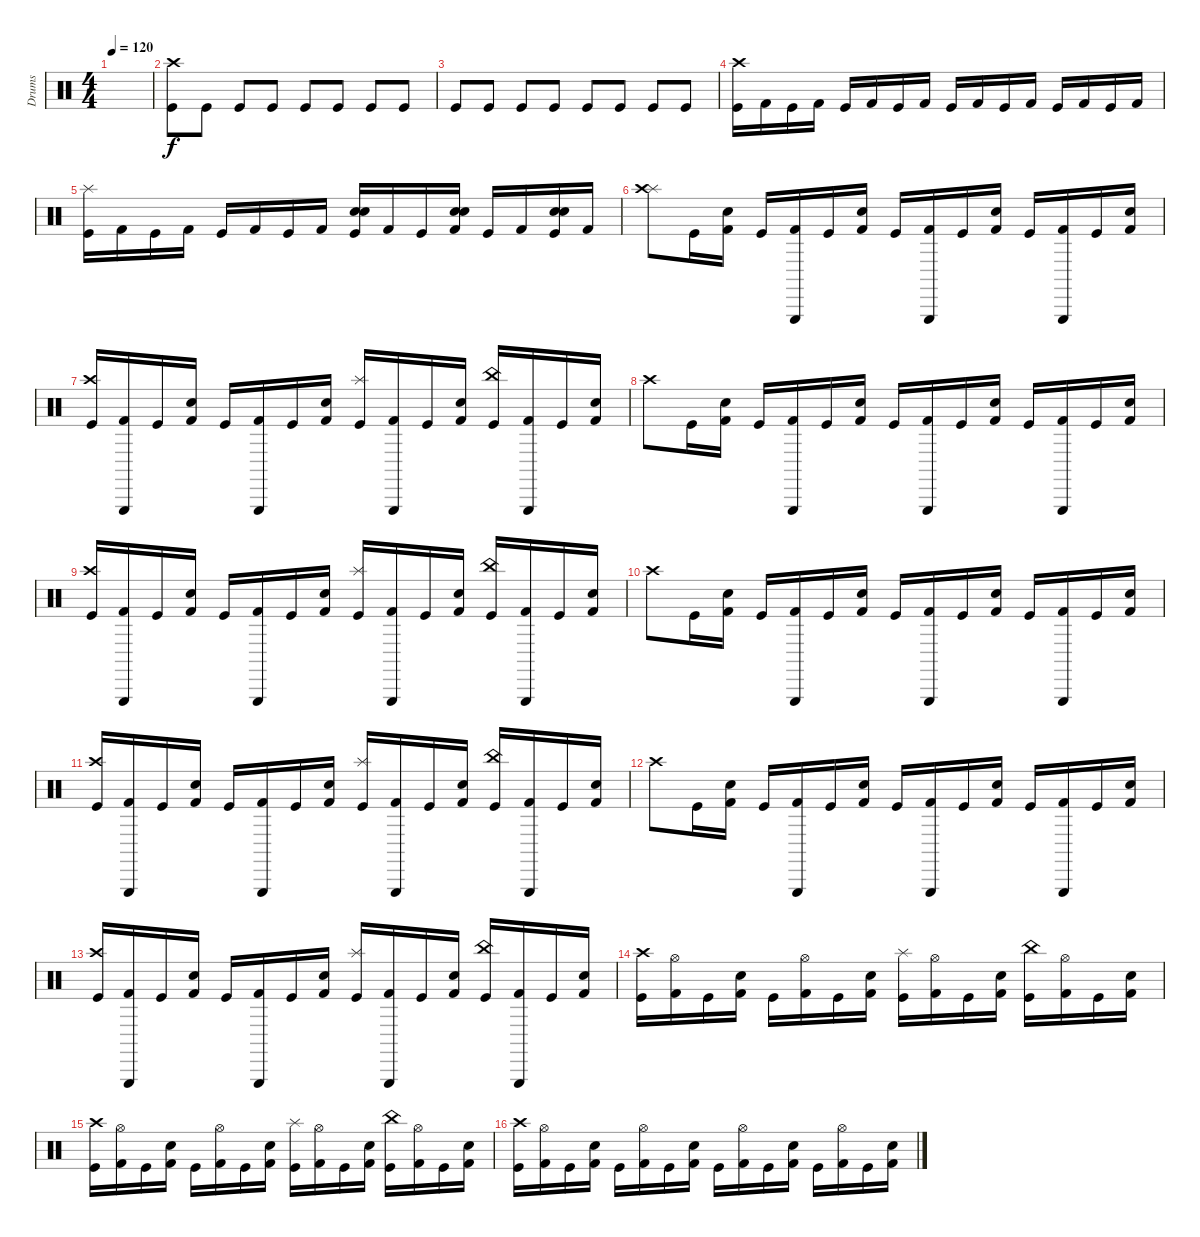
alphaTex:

\track ("Drums" "Drums") {instrument percussion}
\staff {score}
\articulation defaults
\ts (4 4)
\tempo 120
\clef neutral
\ks c
|
("Crash high (hit)" "Kick (hit)").8 "Kick (hit)".8 "Kick (hit)".8 "Kick (hit)".8 "Kick (hit)".8 "Kick (hit)".8 "Kick (hit)".8 "Kick (hit)".8 |
"Kick (hit)".8 "Kick (hit)".8 "Kick (hit)".8 "Kick (hit)".8 "Kick (hit)".8 "Kick (hit)".8 "Kick (hit)".8 "Kick (hit)".8 |
("Crash high (hit)" "Kick (hit)").16 "Kick (hit) 2".16 "Kick (hit)".16 "Kick (hit) 2".16 "Kick (hit)".16 "Kick (hit) 2".16 "Kick (hit)".16 "Kick (hit) 2".16 "Kick (hit)".16 "Kick (hit) 2".16 "Kick (hit)".16 "Kick (hit) 2".16 "Kick (hit)".16 "Kick (hit) 2".16 "Kick (hit)".16 "Kick (hit) 2".16 |
("Splash (hit)" "Kick (hit)").16 "Kick (hit) 2".16 "Kick (hit)".16 "Kick (hit) 2".16 "Kick (hit)".16 "Kick (hit) 2".16 "Kick (hit)".16 "Kick (hit) 2".16 ("Electric Snare (hit)" "Electric Snare (hit)" "Kick (hit)").16 "Kick (hit) 2".16 "Kick (hit)".16 ("Electric Snare (hit)" "Electric Snare (hit)" "Kick (hit) 2").16 "Kick (hit)".16 "Kick (hit) 2".16 ("Electric Snare (hit)" "Electric Snare (hit)" "Kick (hit)").16 "Kick (hit) 2".16 |
("Splash (hit)" "Crash high (hit)").8 "Kick (hit)".16 ("Electric Snare (hit)" "Kick (hit) 2").16 "Kick (hit)".16 ("Triangle (hit)" "Kick (hit) 2").16 "Kick (hit)".16 ("Electric Snare (hit)" "Kick (hit) 2").16 "Kick (hit)".16 ("Triangle (hit)" "Kick (hit) 2").16 "Kick (hit)".16 ("Electric Snare (hit)" "Kick (hit) 2").16 "Kick (hit)".16 ("Triangle (hit)" "Kick (hit) 2").16 "Kick (hit)".16 ("Electric Snare (hit)" "Kick (hit) 2").16 |
("Crash high (hit)" "Kick (hit)").16 ("Triangle (hit)" "Kick (hit) 2").16 "Kick (hit)".16 ("Electric Snare (hit)" "Kick (hit) 2").16 "Kick (hit)".16 ("Triangle (hit)" "Kick (hit) 2").16 "Kick (hit)".16 ("Electric Snare (hit)" "Kick (hit) 2").16 ("Splash (hit)" "Kick (hit)").16 ("Triangle (hit)" "Kick (hit) 2").16 "Kick (hit)".16 ("Electric Snare (hit)" "Kick (hit) 2").16 ("China (hit)" "Kick (hit)").16 ("Triangle (hit)" "Kick (hit) 2").16 "Kick (hit)".16 ("Electric Snare (hit)" "Kick (hit) 2").16 |
"Crash high (hit)".8 "Kick (hit)".16 ("Electric Snare (hit)" "Kick (hit) 2").16 "Kick (hit)".16 ("Triangle (hit)" "Kick (hit) 2").16 "Kick (hit)".16 ("Electric Snare (hit)" "Kick (hit) 2").16 "Kick (hit)".16 ("Triangle (hit)" "Kick (hit) 2").16 "Kick (hit)".16 ("Electric Snare (hit)" "Kick (hit) 2").16 "Kick (hit)".16 ("Triangle (hit)" "Kick (hit) 2").16 "Kick (hit)".16 ("Electric Snare (hit)" "Kick (hit) 2").16 |
("Crash high (hit)" "Kick (hit)").16 ("Triangle (hit)" "Kick (hit) 2").16 "Kick (hit)".16 ("Electric Snare (hit)" "Kick (hit) 2").16 "Kick (hit)".16 ("Triangle (hit)" "Kick (hit) 2").16 "Kick (hit)".16 ("Electric Snare (hit)" "Kick (hit) 2").16 ("Splash (hit)" "Kick (hit)").16 ("Triangle (hit)" "Kick (hit) 2").16 "Kick (hit)".16 ("Electric Snare (hit)" "Kick (hit) 2").16 ("China (hit)" "Kick (hit)").16 ("Triangle (hit)" "Kick (hit) 2").16 "Kick (hit)".16 ("Electric Snare (hit)" "Kick (hit) 2").16 |
"Crash high (hit)".8 "Kick (hit)".16 ("Electric Snare (hit)" "Kick (hit) 2").16 "Kick (hit)".16 ("Triangle (hit)" "Kick (hit) 2").16 "Kick (hit)".16 ("Electric Snare (hit)" "Kick (hit) 2").16 "Kick (hit)".16 ("Triangle (hit)" "Kick (hit) 2").16 "Kick (hit)".16 ("Electric Snare (hit)" "Kick (hit) 2").16 "Kick (hit)".16 ("Triangle (hit)" "Kick (hit) 2").16 "Kick (hit)".16 ("Electric Snare (hit)" "Kick (hit) 2").16 |
("Crash high (hit)" "Kick (hit)").16 ("Triangle (hit)" "Kick (hit) 2").16 "Kick (hit)".16 ("Electric Snare (hit)" "Kick (hit) 2").16 "Kick (hit)".16 ("Triangle (hit)" "Kick (hit) 2").16 "Kick (hit)".16 ("Electric Snare (hit)" "Kick (hit) 2").16 ("Splash (hit)" "Kick (hit)").16 ("Triangle (hit)" "Kick (hit) 2").16 "Kick (hit)".16 ("Electric Snare (hit)" "Kick (hit) 2").16 ("China (hit)" "Kick (hit)").16 ("Triangle (hit)" "Kick (hit) 2").16 "Kick (hit)".16 ("Electric Snare (hit)" "Kick (hit) 2").16 |
"Crash high (hit)".8 "Kick (hit)".16 ("Electric Snare (hit)" "Kick (hit) 2").16 "Kick (hit)".16 ("Triangle (hit)" "Kick (hit) 2").16 "Kick (hit)".16 ("Electric Snare (hit)" "Kick (hit) 2").16 "Kick (hit)".16 ("Triangle (hit)" "Kick (hit) 2").16 "Kick (hit)".16 ("Electric Snare (hit)" "Kick (hit) 2").16 "Kick (hit)".16 ("Triangle (hit)" "Kick (hit) 2").16 "Kick (hit)".16 ("Electric Snare (hit)" "Kick (hit) 2").16 |
("Crash high (hit)" "Kick (hit)").16 ("Triangle (hit)" "Kick (hit) 2").16 "Kick (hit)".16 ("Electric Snare (hit)" "Kick (hit) 2").16 "Kick (hit)".16 ("Triangle (hit)" "Kick (hit) 2").16 "Kick (hit)".16 ("Electric Snare (hit)" "Kick (hit) 2").16 ("Splash (hit)" "Kick (hit)").16 ("Triangle (hit)" "Kick (hit) 2").16 "Kick (hit)".16 ("Electric Snare (hit)" "Kick (hit) 2").16 ("China (hit)" "Kick (hit)").16 ("Triangle (hit)" "Kick (hit) 2").16 "Kick (hit)".16 ("Electric Snare (hit)" "Kick (hit) 2").16 |
("Crash high (hit)" "Kick (hit)").16 ("Hi-Hat (open)" "Kick (hit) 2").16 "Kick (hit)".16 ("Electric Snare (hit)" "Kick (hit) 2").16 "Kick (hit)".16 ("Hi-Hat (open)" "Kick (hit) 2").16 "Kick (hit)".16 ("Electric Snare (hit)" "Kick (hit) 2").16 ("Splash (hit)" "Kick (hit)").16 ("Hi-Hat (open)" "Kick (hit) 2").16 "Kick (hit)".16 ("Electric Snare (hit)" "Kick (hit) 2").16 ("China (hit)" "Kick (hit)").16 ("Hi-Hat (open)" "Kick (hit) 2").16 "Kick (hit)".16 ("Electric Snare (hit)" "Kick (hit) 2").16 |
("Crash high (hit)" "Kick (hit)").16 ("Hi-Hat (open)" "Kick (hit) 2").16 "Kick (hit)".16 ("Electric Snare (hit)" "Kick (hit) 2").16 "Kick (hit)".16 ("Hi-Hat (open)" "Kick (hit) 2").16 "Kick (hit)".16 ("Electric Snare (hit)" "Kick (hit) 2").16 ("Splash (hit)" "Kick (hit)").16 ("Hi-Hat (open)" "Kick (hit) 2").16 "Kick (hit)".16 ("Electric Snare (hit)" "Kick (hit) 2").16 ("China (hit)" "Kick (hit)").16 ("Hi-Hat (open)" "Kick (hit) 2").16 "Kick (hit)".16 ("Electric Snare (hit)" "Kick (hit) 2").16 |
("Crash high (hit)" "Kick (hit)").16 ("Hi-Hat (open)" "Kick (hit) 2").16 "Kick (hit)".16 ("Electric Snare (hit)" "Kick (hit) 2").16 "Kick (hit)".16 ("Hi-Hat (open)" "Kick (hit) 2").16 "Kick (hit)".16 ("Electric Snare (hit)" "Kick (hit) 2").16 "Kick (hit)".16 ("Hi-Hat (open)" "Kick (hit) 2").16 "Kick (hit)".16 ("Electric Snare (hit)" "Kick (hit) 2").16 "Kick (hit)".16 ("Hi-Hat (open)" "Kick (hit) 2").16 "Kick (hit)".16 ("Electric Snare (hit)" "Kick (hit) 2").16
